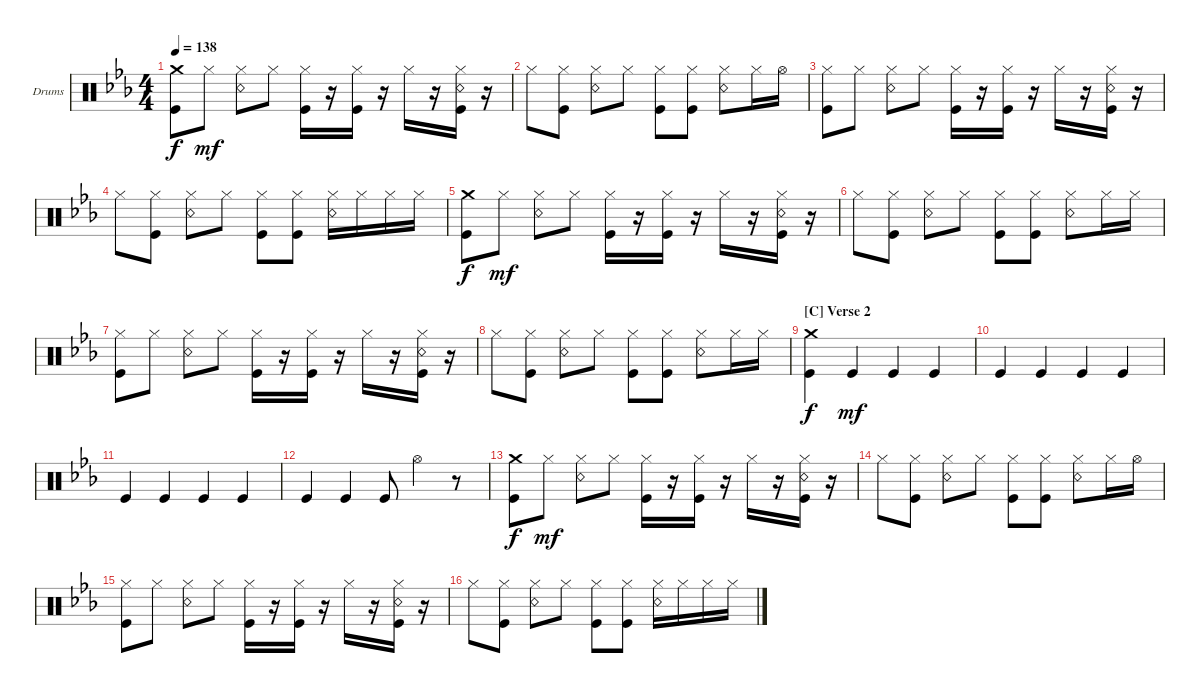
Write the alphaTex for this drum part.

\defaultSystemsLayout 4
\bracketExtendMode groupsimilarinstruments
\firstSystemTrackNameOrientation horizontal
\otherSystemsTrackNameOrientation horizontal
\track ("Drums" "Drums") {instrument percussion}
\staff {score}
\articulation defaults
\ts (4 4)
\tempo 138
\clef neutral
\ks eb
("Kick (hit)" "Crash medium (hit)").8{dy f} "Hi-Hat (closed)".8{dy mf} ("Hi-Hat (closed)" "Snare (rim shot)").8 "Hi-Hat (closed)".8 ("Hi-Hat (closed)" "Kick (hit)").16 r.16 ("Kick (hit)" "Hi-Hat (closed)").16 r.16 "Hi-Hat (closed)".16 r.16 ("Kick (hit)" "Snare (rim shot)" "Hi-Hat (closed)").16 r.16 |
"Hi-Hat (closed)".8 ("Kick (hit)" "Hi-Hat (closed)").8 ("Hi-Hat (closed)" "Snare (rim shot)").8 "Hi-Hat (closed)".8 ("Hi-Hat (closed)" "Kick (hit)").8 ("Kick (hit)" "Hi-Hat (closed)").8 ("Hi-Hat (closed)" "Snare (rim shot)").8 "Hi-Hat (closed)".16 "Hi-Hat (open)".16 |
("Kick (hit)" "Hi-Hat (closed)").8 "Hi-Hat (closed)".8 ("Hi-Hat (closed)" "Snare (rim shot)").8 "Hi-Hat (closed)".8 ("Hi-Hat (closed)" "Kick (hit)").16 r.16 ("Kick (hit)" "Hi-Hat (closed)").16 r.16 "Hi-Hat (closed)".16 r.16 ("Kick (hit)" "Hi-Hat (closed)" "Snare (rim shot)").16 r.16 |
"Hi-Hat (closed)".8 ("Kick (hit)" "Hi-Hat (closed)").8 ("Hi-Hat (closed)" "Snare (rim shot)").8 "Hi-Hat (closed)".8 ("Hi-Hat (closed)" "Kick (hit)").8 ("Kick (hit)" "Hi-Hat (closed)").8 ("Hi-Hat (closed)" "Snare (rim shot)").16 "Hi-Hat (closed)".16 "Hi-Hat (closed)".16 "Hi-Hat (closed)".16 |
("Kick (hit)" "Crash medium (hit)").8{dy f} "Hi-Hat (closed)".8{dy mf} ("Hi-Hat (closed)" "Snare (rim shot)").8 "Hi-Hat (closed)".8 ("Hi-Hat (closed)" "Kick (hit)").16 r.16 ("Kick (hit)" "Hi-Hat (closed)").16 r.16 "Hi-Hat (closed)".16 r.16 ("Kick (hit)" "Hi-Hat (closed)" "Snare (rim shot)").16 r.16 |
"Hi-Hat (closed)".8 ("Kick (hit)" "Hi-Hat (closed)").8 ("Hi-Hat (closed)" "Snare (rim shot)").8 "Hi-Hat (closed)".8 ("Hi-Hat (closed)" "Kick (hit)").8 ("Kick (hit)" "Hi-Hat (closed)").8 ("Hi-Hat (closed)" "Snare (rim shot)").8 "Hi-Hat (closed)".16 "Hi-Hat (closed)".16 |
("Kick (hit)" "Hi-Hat (closed)").8 "Hi-Hat (closed)".8 ("Hi-Hat (closed)" "Snare (rim shot)").8 "Hi-Hat (closed)".8 ("Hi-Hat (closed)" "Kick (hit)").16 r.16 ("Kick (hit)" "Hi-Hat (closed)").16 r.16 "Hi-Hat (closed)".16 r.16 ("Kick (hit)" "Hi-Hat (closed)" "Snare (rim shot)").16 r.16 |
"Hi-Hat (closed)".8 ("Kick (hit)" "Hi-Hat (closed)").8 ("Hi-Hat (closed)" "Snare (rim shot)").8 "Hi-Hat (closed)".8 ("Hi-Hat (closed)" "Kick (hit)").8 ("Kick (hit)" "Hi-Hat (closed)").8 ("Hi-Hat (closed)" "Snare (rim shot)").8 "Hi-Hat (closed)".16 "Hi-Hat (closed)".16 |
\section ("C" "Verse 2")
("Kick (hit)" "Crash medium (hit)").4{dy f} "Kick (hit)".4{dy mf} "Kick (hit)".4 "Kick (hit)".4 |
"Kick (hit)".4 "Kick (hit)".4 "Kick (hit)".4 "Kick (hit)".4 |
"Kick (hit)".4 "Kick (hit)".4 "Kick (hit)".4 "Kick (hit)".4 |
"Kick (hit)".4 "Kick (hit)".4 "Kick (hit)".8 "Hi-Hat (open)".4 r.8 |
("Kick (hit)" "Crash medium (hit)").8{dy f} "Hi-Hat (closed)".8{dy mf} ("Hi-Hat (closed)" "Snare (rim shot)").8 "Hi-Hat (closed)".8 ("Hi-Hat (closed)" "Kick (hit)").16 r.16 ("Kick (hit)" "Hi-Hat (closed)").16 r.16 "Hi-Hat (closed)".16 r.16 ("Kick (hit)" "Snare (rim shot)" "Hi-Hat (closed)").16 r.16 |
"Hi-Hat (closed)".8 ("Kick (hit)" "Hi-Hat (closed)").8 ("Hi-Hat (closed)" "Snare (rim shot)").8 "Hi-Hat (closed)".8 ("Hi-Hat (closed)" "Kick (hit)").8 ("Kick (hit)" "Hi-Hat (closed)").8 ("Hi-Hat (closed)" "Snare (rim shot)").8 "Hi-Hat (closed)".16 "Hi-Hat (open)".16 |
("Kick (hit)" "Hi-Hat (closed)").8 "Hi-Hat (closed)".8 ("Hi-Hat (closed)" "Snare (rim shot)").8 "Hi-Hat (closed)".8 ("Hi-Hat (closed)" "Kick (hit)").16 r.16 ("Kick (hit)" "Hi-Hat (closed)").16 r.16 "Hi-Hat (closed)".16 r.16 ("Kick (hit)" "Hi-Hat (closed)" "Snare (rim shot)").16 r.16 |
"Hi-Hat (closed)".8 ("Kick (hit)" "Hi-Hat (closed)").8 ("Hi-Hat (closed)" "Snare (rim shot)").8 "Hi-Hat (closed)".8 ("Hi-Hat (closed)" "Kick (hit)").8 ("Kick (hit)" "Hi-Hat (closed)").8 ("Hi-Hat (closed)" "Snare (rim shot)").16 "Hi-Hat (closed)".16 "Hi-Hat (closed)".16 "Hi-Hat (closed)".16
